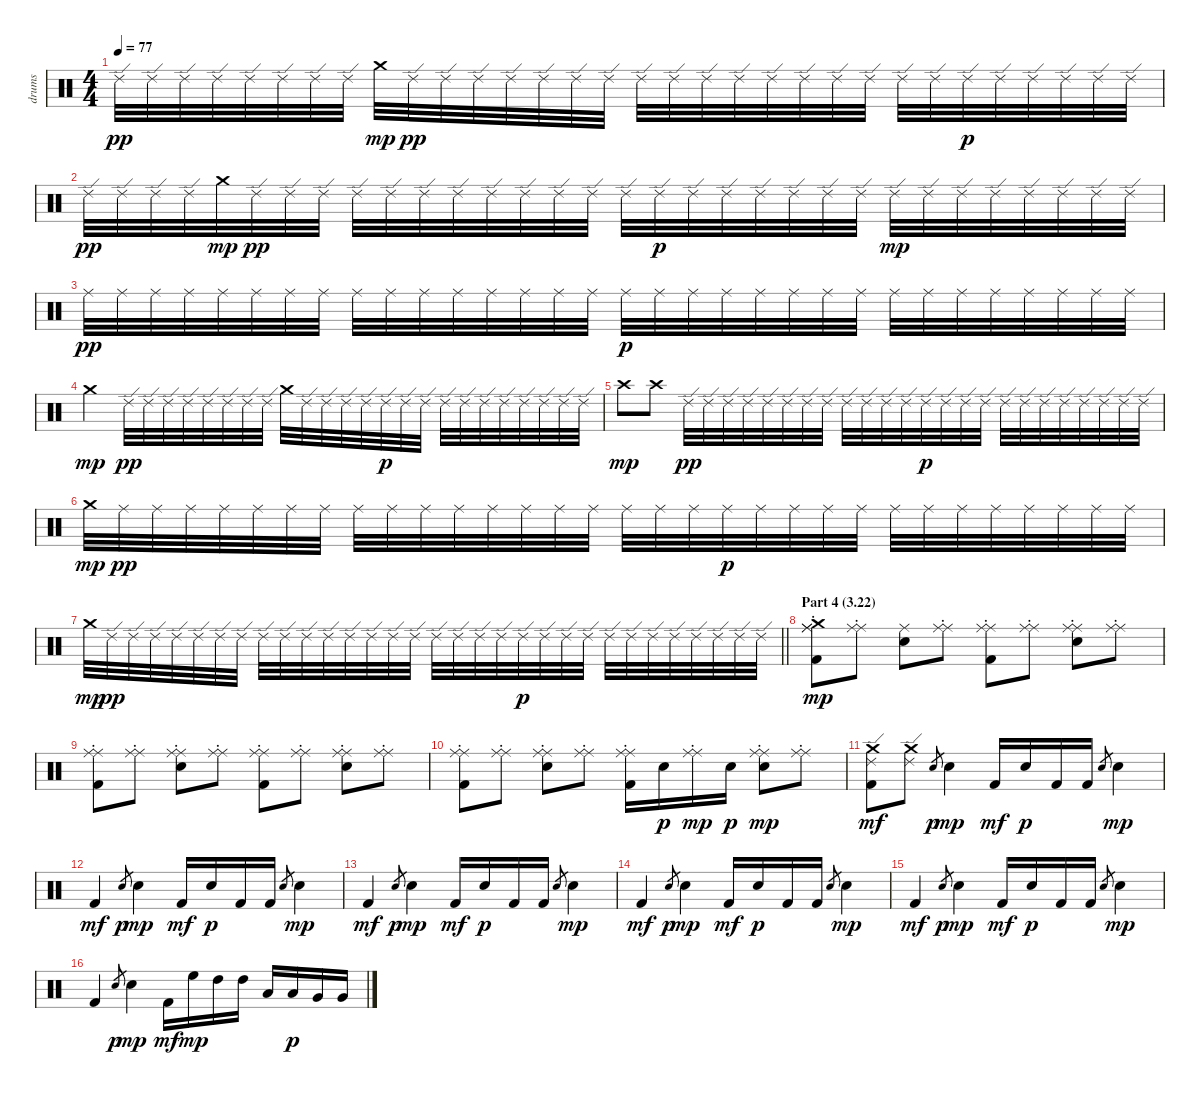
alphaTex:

\track ("drums" "drums") {instrument percussion}
\staff {score}
\articulation defaults
\ts (4 4)
\tempo 77
\clef neutral
\ks c "Ride (edge) 2".32{dy pp} "Ride (edge) 2".32 "Ride (edge) 2".32 "Ride (edge) 2".32 "Ride (edge) 2".32 "Ride (edge) 2".32 "Ride (edge) 2".32 "Ride (edge) 2".32 "Crash medium (hit)".32{dy mp} "Ride (edge) 2".32{dy pp} "Ride (edge) 2".32 "Ride (edge) 2".32 "Ride (edge) 2".32 "Ride (edge) 2".32 "Ride (edge) 2".32 "Ride (edge) 2".32 "Ride (edge) 2".32 "Ride (edge) 2".32 "Ride (edge) 2".32 "Ride (edge) 2".32 "Ride (edge) 2".32 "Ride (edge) 2".32 "Ride (edge) 2".32 "Ride (edge) 2".32 "Ride (edge) 2".32 "Ride (edge) 2".32 "Ride (edge) 2".32{dy p} "Ride (edge) 2".32 "Ride (edge) 2".32 "Ride (edge) 2".32 "Ride (edge) 2".32 "Ride (edge) 2".32
|
"Ride (edge) 2".32{dy pp} "Ride (edge) 2".32 "Ride (edge) 2".32 "Ride (edge) 2".32 "Crash medium (hit)".32{dy mp} "Ride (edge) 2".32{dy pp} "Ride (edge) 2".32 "Ride (edge) 2".32 "Ride (edge) 2".32 "Ride (edge) 2".32 "Ride (edge) 2".32 "Ride (edge) 2".32 "Ride (edge) 2".32 "Ride (edge) 2".32 "Ride (edge) 2".32 "Ride (edge) 2".32 "Ride (edge) 2".32 "Ride (edge) 2".32{dy p} "Ride (edge) 2".32 "Ride (edge) 2".32 "Ride (edge) 2".32 "Ride (edge) 2".32 "Ride (edge) 2".32 "Ride (edge) 2".32 "Ride (edge) 2".32{dy mp} "Ride (edge) 2".32 "Ride (edge) 2".32 "Ride (edge) 2".32 "Ride (edge) 2".32 "Ride (edge) 2".32 "Ride (edge) 2".32 "Ride (edge) 2".32 |
"Ride (middle)".32{dy pp} "Ride (middle)".32 "Ride (middle)".32 "Ride (middle)".32 "Ride (middle)".32 "Ride (middle)".32 "Ride (middle)".32 "Ride (middle)".32 "Ride (middle)".32 "Ride (middle)".32 "Ride (middle)".32 "Ride (middle)".32 "Ride (middle)".32 "Ride (middle)".32 "Ride (middle)".32 "Ride (middle)".32 "Ride (middle)".32{dy p} "Ride (middle)".32 "Ride (middle)".32 "Ride (middle)".32 "Ride (middle)".32 "Ride (middle)".32 "Ride (middle)".32 "Ride (middle)".32 "Ride (middle)".32 "Ride (middle)".32 "Ride (middle)".32 "Ride (middle)".32 "Ride (middle)".32 "Ride (middle)".32 "Ride (middle)".32 "Ride (middle)".32 |
"Crash medium (hit)".4{dy mp} "Ride (edge) 2".32{dy pp} "Ride (edge) 2".32 "Ride (edge) 2".32 "Ride (edge) 2".32 "Ride (edge) 2".32 "Ride (edge) 2".32 "Ride (edge) 2".32 "Ride (edge) 2".32 "Crash medium (hit)".32 "Ride (edge) 2".32 "Ride (edge) 2".32 "Ride (edge) 2".32 "Ride (edge) 2".32 "Ride (edge) 2".32{dy p} "Ride (edge) 2".32 "Ride (edge) 2".32 "Ride (edge) 2".32 "Ride (edge) 2".32 "Ride (edge) 2".32 "Ride (edge) 2".32 "Ride (edge) 2".32 "Ride (edge) 2".32 "Ride (edge) 2".32 "Ride (edge) 2".32 |
"Crash high (hit)".8{dy mp} "Crash high (hit)".8 "Ride (edge) 2".32{dy pp} "Ride (edge) 2".32 "Ride (edge) 2".32 "Ride (edge) 2".32 "Ride (edge) 2".32 "Ride (edge) 2".32 "Ride (edge) 2".32 "Ride (edge) 2".32 "Ride (edge) 2".32 "Ride (edge) 2".32 "Ride (edge) 2".32 "Ride (edge) 2".32 "Ride (edge) 2".32{dy p} "Ride (edge) 2".32 "Ride (edge) 2".32 "Ride (edge) 2".32 "Ride (edge) 2".32 "Ride (edge) 2".32 "Ride (edge) 2".32 "Ride (edge) 2".32 "Ride (edge) 2".32 "Ride (edge) 2".32 "Ride (edge) 2".32 "Ride (edge) 2".32 |
"Crash medium (hit)".32{dy mp} "Ride (middle)".32{dy pp} "Ride (middle)".32 "Ride (middle)".32 "Ride (middle)".32 "Ride (middle)".32 "Ride (middle)".32 "Ride (middle)".32 "Ride (middle)".32 "Ride (middle)".32 "Ride (middle)".32 "Ride (middle)".32 "Ride (middle)".32 "Ride (middle)".32 "Ride (middle)".32 "Ride (middle)".32 "Ride (middle)".32 "Ride (middle)".32 "Ride (middle)".32 "Ride (middle)".32{dy p} "Ride (middle)".32 "Ride (middle)".32 "Ride (middle)".32 "Ride (middle)".32 "Ride (middle)".32 "Ride (middle)".32 "Ride (middle)".32 "Ride (middle)".32 "Ride (middle)".32 "Ride (middle)".32 "Ride (middle)".32 "Ride (middle)".32 |
\barLineRight lightlight "Crash medium (hit)".32{dy mp} "Ride (edge) 2".32{dy pp} "Ride (edge) 2".32 "Ride (edge) 2".32 "Ride (edge) 2".32 "Ride (edge) 2".32 "Ride (edge) 2".32 "Ride (edge) 2".32 "Ride (edge) 2".32 "Ride (edge) 2".32 "Ride (edge) 2".32 "Ride (edge) 2".32 "Ride (edge) 2".32 "Ride (edge) 2".32 "Ride (edge) 2".32 "Ride (edge) 2".32 "Ride (edge) 2".32 "Ride (edge) 2".32 "Ride (edge) 2".32 "Ride (edge) 2".32 "Ride (edge) 2".32{dy p} "Ride (edge) 2".32 "Ride (edge) 2".32 "Ride (edge) 2".32 "Ride (edge) 2".32 "Ride (edge) 2".32 "Ride (edge) 2".32 "Ride (edge) 2".32 "Ride (edge) 2".32 "Ride (edge) 2".32 "Ride (edge) 2".32 "Ride (edge) 2".32
|
\section ("" "Part 4 (3.22)")
("Crash medium (hit)" "Ride (middle)" "Ride (choke)" "Kick (hit) 2").8{dy mp} ("Ride (middle)" "Ride (choke)").8 ("Ride (middle)" "Electric Snare (hit)").8 ("Ride (middle)" "Ride (choke)").8 ("Ride (middle)" "Ride (choke)" "Kick (hit) 2").8 ("Ride (middle)" "Ride (choke)").8 ("Ride (middle)" "Ride (choke)" "Electric Snare (hit)").8 ("Ride (middle)" "Ride (choke)").8 |
("Ride (middle)" "Ride (choke)" "Kick (hit) 2").8 ("Ride (middle)" "Ride (choke)").8 ("Ride (middle)" "Ride (choke)" "Electric Snare (hit)").8 ("Ride (middle)" "Ride (choke)").8 ("Ride (middle)" "Ride (choke)" "Kick (hit) 2").8 ("Ride (middle)" "Ride (choke)").8 ("Electric Snare (hit)" "Ride (middle)" "Ride (choke)").8 ("Ride (middle)" "Ride (choke)").8 |
("Ride (middle)" "Ride (choke)" "Kick (hit) 2").8 ("Ride (middle)" "Ride (choke)").8 ("Ride (middle)" "Ride (choke)" "Electric Snare (hit)").8 ("Ride (middle)" "Ride (choke)").8 ("Ride (middle)" "Ride (choke)" "Kick (hit) 2").16 "Electric Snare (hit)".16{dy p} ("Ride (middle)" "Ride (choke)").16{dy mp} "Electric Snare (hit)".16{dy p} ("Ride (middle)" "Ride (choke)" "Electric Snare (hit)").8{dy mp} ("Ride (middle)" "Ride (choke)").8 |
("Crash medium (hit)" "Ride (edge) 2" "Kick (hit) 2").8{dy mf} ("Crash medium (hit)" "Ride (edge) 2").8 "Snare (hit) 2".8{gr dy p} "Snare (hit) 2".4{dy mp} "Kick (hit) 2".16{dy mf} "Snare (hit) 2".16{dy p} "Kick (hit) 2".16 "Kick (hit) 2".16 "Snare (hit) 2".8{gr} "Snare (hit) 2".4{dy mp} |
"Kick (hit) 2".4{dy mf} "Snare (hit) 2".8{gr dy p} "Snare (hit) 2".4{dy mp} "Kick (hit) 2".16{dy mf} "Snare (hit) 2".16{dy p} "Kick (hit) 2".16 "Kick (hit) 2".16 "Snare (hit) 2".8{gr} "Snare (hit) 2".4{dy mp} |
"Kick (hit) 2".4{dy mf} "Snare (hit) 2".8{gr dy p} "Snare (hit) 2".4{dy mp} "Kick (hit) 2".16{dy mf} "Snare (hit) 2".16{dy p} "Kick (hit) 2".16 "Kick (hit) 2".16 "Snare (hit) 2".8{gr} "Snare (hit) 2".4{dy mp} |
"Kick (hit) 2".4{dy mf} "Snare (hit) 2".8{gr dy p} "Snare (hit) 2".4{dy mp} "Kick (hit) 2".16{dy mf} "Snare (hit) 2".16{dy p} "Kick (hit) 2".16 "Kick (hit) 2".16 "Snare (hit) 2".8{gr} "Snare (hit) 2".4{dy mp} |
"Kick (hit) 2".4{dy mf} "Snare (hit) 2".8{gr dy p} "Snare (hit) 2".4{dy mp} "Kick (hit) 2".16{dy mf} "Snare (hit) 2".16{dy p} "Kick (hit) 2".16 "Kick (hit) 2".16 "Snare (hit) 2".8{gr} "Snare (hit) 2".4{dy mp} |
"Kick (hit) 2".4 "Snare (hit) 2".8{gr dy p} "Snare (hit) 2".4{dy mp} "Kick (hit) 2".16{dy mf} "High Floor Tom (hit)".16{dy mp} "High Tom (hit)".16 "High Tom (hit)".16 "Low Tom (hit)".16 "Low Tom (hit)".16{dy p} "Very Low Tom (hit)".16 "Very Low Tom (hit)".16
